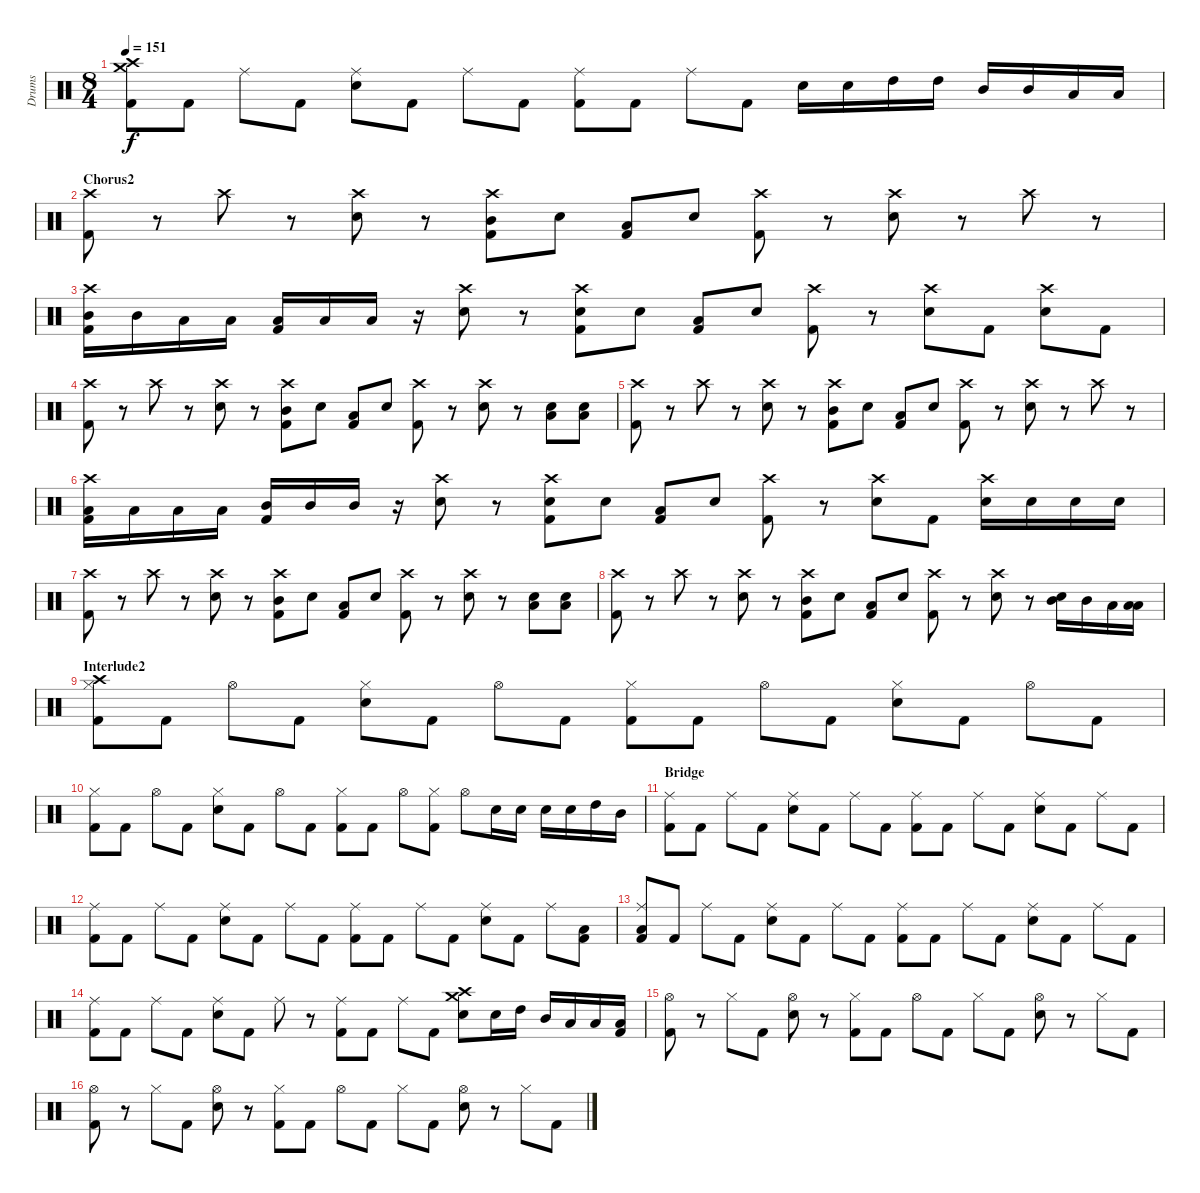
\track ("Drums" "Drums") {instrument percussion}
\staff {score}
\articulation defaults
\ts (8 4)
\tempo 151
\clef neutral
\ks c
("Crash medium (hit)" "Crash high (hit)" "Kick (hit) 2").8{dy f} "Kick (hit) 2".8 "Ride (middle)".8 "Kick (hit) 2".8 ("Ride (middle)" "Electric Snare (hit)").8 "Kick (hit) 2".8 "Ride (middle)".8 "Kick (hit) 2".8 ("Ride (middle)" "Kick (hit) 2").8 "Kick (hit) 2".8 "Ride (middle)".8 "Kick (hit) 2".8 "Electric Snare (hit)".16 "Electric Snare (hit)".16 "High Tom (hit)".16 "High Tom (hit)".16 "Mid Tom (hit)".16 "Mid Tom (hit)".16 "Low Tom (hit)".16 "Low Tom (hit)".16 |
\section ("" "Chorus2")
("Crash high (hit)" "Kick (hit) 2").8 r.8 "Crash high (hit)".8 r.8 ("Crash high (hit)" "Electric Snare (hit)").8 r.8 ("Crash high (hit)" "Mid Tom (hit)" "Kick (hit) 2").8 "Electric Snare (hit)".8 ("Low Tom (hit)" "Kick (hit) 2").8 "Electric Snare (hit)".8 ("Crash high (hit)" "Kick (hit) 2").8 r.8 ("Crash high (hit)" "Electric Snare (hit)").8 r.8 "Crash high (hit)".8 r.8 |
("Crash high (hit)" "Mid Tom (hit)" "Kick (hit) 2").16 "Mid Tom (hit)".16 "Low Tom (hit)".16 "Low Tom (hit)".16 ("Low Floor Tom (hit)" "Kick (hit) 2").16 "Low Floor Tom (hit)".16 "Low Floor Tom (hit)".16 r.16 ("Crash high (hit)" "Electric Snare (hit)").8 r.8 ("Crash high (hit)" "Electric Snare (hit)" "Kick (hit) 2").8 "Electric Snare (hit)".8 ("Low Tom (hit)" "Kick (hit) 2").8 "Electric Snare (hit)".8 ("Crash high (hit)" "Kick (hit) 2").8 r.8 ("Crash high (hit)" "Electric Snare (hit)").8 "Kick (hit) 2".8 ("Crash high (hit)" "Electric Snare (hit)").8 "Kick (hit) 2".8 |
("Crash high (hit)" "Kick (hit) 2").8 r.8 "Crash high (hit)".8 r.8 ("Crash high (hit)" "Electric Snare (hit)").8 r.8 ("Crash high (hit)" "Mid Tom (hit)" "Kick (hit) 2").8 "Electric Snare (hit)".8 ("Low Tom (hit)" "Kick (hit) 2").8 "Electric Snare (hit)".8 ("Crash high (hit)" "Kick (hit) 2").8 r.8 ("Crash high (hit)" "Electric Snare (hit)").8 r.8 ("Electric Snare (hit)" "Low Floor Tom (hit)").8 ("Electric Snare (hit)" "Low Floor Tom (hit)").8 |
("Crash high (hit)" "Kick (hit) 2").8 r.8 "Crash high (hit)".8 r.8 ("Crash high (hit)" "Electric Snare (hit)").8 r.8 ("Crash high (hit)" "Mid Tom (hit)" "Kick (hit) 2").8 "Electric Snare (hit)".8 ("Low Tom (hit)" "Kick (hit) 2").8 "Electric Snare (hit)".8 ("Crash high (hit)" "Kick (hit) 2").8 r.8 ("Crash high (hit)" "Electric Snare (hit)").8 r.8 "Crash high (hit)".8 r.8 |
("Crash high (hit)" "Low Floor Tom (hit)" "Kick (hit) 2").16 "Low Floor Tom (hit)".16 "Low Tom (hit)".16 "Low Tom (hit)".16 ("Mid Tom (hit)" "Kick (hit) 2").16 "Mid Tom (hit)".16 "Mid Tom (hit)".16 r.16 ("Crash high (hit)" "Electric Snare (hit)").8 r.8 ("Crash high (hit)" "Electric Snare (hit)" "Kick (hit) 2").8 "Electric Snare (hit)".8 ("Low Tom (hit)" "Kick (hit) 2").8 "Electric Snare (hit)".8 ("Crash high (hit)" "Kick (hit) 2").8 r.8 ("Crash high (hit)" "Electric Snare (hit)").8 "Kick (hit) 2".8 ("Crash high (hit)" "Electric Snare (hit)").16 "Electric Snare (hit)".16 "Electric Snare (hit)".16 "Electric Snare (hit)".16 |
("Crash high (hit)" "Kick (hit) 2").8 r.8 "Crash high (hit)".8 r.8 ("Crash high (hit)" "Electric Snare (hit)").8 r.8 ("Crash high (hit)" "Mid Tom (hit)" "Kick (hit) 2").8 "Electric Snare (hit)".8 ("Low Tom (hit)" "Kick (hit) 2").8 "Electric Snare (hit)".8 ("Crash high (hit)" "Kick (hit) 2").8 r.8 ("Crash high (hit)" "Electric Snare (hit)").8 r.8 ("Electric Snare (hit)" "Low Floor Tom (hit)").8 ("Electric Snare (hit)" "Low Floor Tom (hit)").8 |
("Crash high (hit)" "Kick (hit) 2").8 r.8 "Crash high (hit)".8 r.8 ("Crash high (hit)" "Electric Snare (hit)").8 r.8 ("Crash high (hit)" "Mid Tom (hit)" "Kick (hit) 2").8 "Electric Snare (hit)".8 ("Low Tom (hit)" "Kick (hit) 2").8 "Electric Snare (hit)".8 ("Crash high (hit)" "Kick (hit) 2").8 r.8 ("Crash high (hit)" "Electric Snare (hit)").8 r.8 ("Mid Tom (hit)" "Electric Snare (hit)").16 "Mid Tom (hit)".16 "Low Tom (hit)".16 ("Low Tom (hit)" "Low Floor Tom (hit)").16 |
\section ("" "Interlude2")
("Crash high (hit)" "Hi-Hat (closed)" "Kick (hit) 2").8 "Kick (hit) 2".8 "Hi-Hat (open)".8 "Kick (hit) 2".8 ("Hi-Hat (closed)" "Electric Snare (hit)").8 "Kick (hit) 2".8 "Hi-Hat (open)".8 "Kick (hit) 2".8 ("Hi-Hat (closed)" "Kick (hit) 2").8 "Kick (hit) 2".8 "Hi-Hat (open)".8 "Kick (hit) 2".8 ("Hi-Hat (closed)" "Electric Snare (hit)").8 "Kick (hit) 2".8 "Hi-Hat (open)".8 "Kick (hit) 2".8 |
("Hi-Hat (closed)" "Kick (hit) 2").8 "Kick (hit) 2".8 "Hi-Hat (open)".8 "Kick (hit) 2".8 ("Hi-Hat (closed)" "Electric Snare (hit)").8 "Kick (hit) 2".8 "Hi-Hat (open)".8 "Kick (hit) 2".8 ("Hi-Hat (closed)" "Kick (hit) 2").8 "Kick (hit) 2".8 "Hi-Hat (open)".8 ("Hi-Hat (closed)" "Kick (hit) 2").8 "Hi-Hat (open)".8 "Electric Snare (hit)".16 "Electric Snare (hit)".16 "Electric Snare (hit)".16 "Electric Snare (hit)".16 "High Tom (hit)".16 "Mid Tom (hit)".16 |
\section ("" "Bridge")
("Ride (middle)" "Kick (hit) 2").8 "Kick (hit) 2".8 "Ride (middle)".8 "Kick (hit) 2".8 ("Ride (middle)" "Electric Snare (hit)").8 "Kick (hit) 2".8 "Ride (middle)".8 "Kick (hit) 2".8 ("Ride (middle)" "Kick (hit) 2").8 "Kick (hit) 2".8 "Ride (middle)".8 "Kick (hit) 2".8 ("Ride (middle)" "Electric Snare (hit)").8 "Kick (hit) 2".8 "Ride (middle)".8 "Kick (hit) 2".8 |
("Ride (middle)" "Kick (hit) 2").8 "Kick (hit) 2".8 "Ride (middle)".8 "Kick (hit) 2".8 ("Ride (middle)" "Electric Snare (hit)").8 "Kick (hit) 2".8 "Ride (middle)".8 "Kick (hit) 2".8 ("Ride (middle)" "Kick (hit) 2").8 "Kick (hit) 2".8 "Ride (middle)".8 "Kick (hit) 2".8 ("Ride (middle)" "Electric Snare (hit)").8 "Kick (hit) 2".8 "Ride (middle)".8 ("Low Floor Tom (hit)" "Kick (hit) 2").8 |
("Ride (middle)" "Low Tom (hit)" "Kick (hit) 2").8 "Kick (hit) 2".8 "Ride (middle)".8 "Kick (hit) 2".8 ("Ride (middle)" "Electric Snare (hit)").8 "Kick (hit) 2".8 "Ride (middle)".8 "Kick (hit) 2".8 ("Ride (middle)" "Kick (hit) 2").8 "Kick (hit) 2".8 "Ride (middle)".8 "Kick (hit) 2".8 ("Ride (middle)" "Electric Snare (hit)").8 "Kick (hit) 2".8 "Ride (middle)".8 "Kick (hit) 2".8 |
("Ride (middle)" "Kick (hit) 2").8 "Kick (hit) 2".8 "Ride (middle)".8 "Kick (hit) 2".8 ("Ride (middle)" "Electric Snare (hit)").8 "Kick (hit) 2".8 "Ride (middle)".8 r.8 ("Ride (middle)" "Kick (hit) 2").8 "Kick (hit) 2".8 "Ride (middle)".8 "Kick (hit) 2".8 ("Crash medium (hit)" "Crash high (hit)" "Electric Snare (hit)").8 "Electric Snare (hit)".16 "High Tom (hit)".16 "Mid Tom (hit)".16 "Low Tom (hit)".16 "Low Floor Tom (hit)".16 ("Low Floor Tom (hit)" "Kick (hit) 2").16 |
("Hi-Hat (open)" "Kick (hit) 2").8 r.8 "Hi-Hat (closed)".8 "Kick (hit) 2".8 ("Hi-Hat (open)" "Electric Snare (hit)").8 r.8 ("Hi-Hat (closed)" "Kick (hit) 2").8 "Kick (hit) 2".8 "Hi-Hat (open)".8 "Kick (hit) 2".8 "Hi-Hat (closed)".8 "Kick (hit) 2".8 ("Hi-Hat (open)" "Electric Snare (hit)").8 r.8 "Hi-Hat (closed)".8 "Kick (hit) 2".8 |
("Hi-Hat (open)" "Kick (hit) 2").8 r.8 "Hi-Hat (closed)".8 "Kick (hit) 2".8 ("Hi-Hat (open)" "Electric Snare (hit)").8 r.8 ("Hi-Hat (closed)" "Kick (hit) 2").8 "Kick (hit) 2".8 "Hi-Hat (open)".8 "Kick (hit) 2".8 "Hi-Hat (closed)".8 "Kick (hit) 2".8 ("Hi-Hat (open)" "Electric Snare (hit)").8 r.8 "Hi-Hat (closed)".8 "Kick (hit) 2".8
